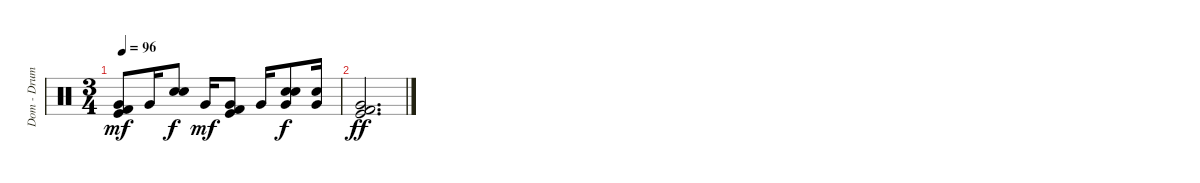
\track ("Dom - Drums" "Dom - Drum") {instrument percussion}
\staff {score}
\articulation defaults
\ts (3 4)
\tempo 96
\clef neutral
\ks c
("Very Low Tom (hit)" "Kick (hit)" "Kick (hit) 2").8{dy mf} "Very Low Tom (hit)".16 ("Electric Snare (hit)" "Snare (hit) 2").8{dy f} "Very Low Tom (hit)".16{dy mf} ("Very Low Tom (hit)" "Kick (hit)" "Kick (hit) 2").8 "Very Low Tom (hit)".16 ("Very Low Tom (hit)" "Snare (hit) 2" "Hand Clap (hit)").8{dy f} ("Very Low Tom (hit)" "Hand Clap (hit)").16 |
("Very Low Tom (hit)" "Kick (hit)" "Kick (hit) 2").2{d dy ff}
